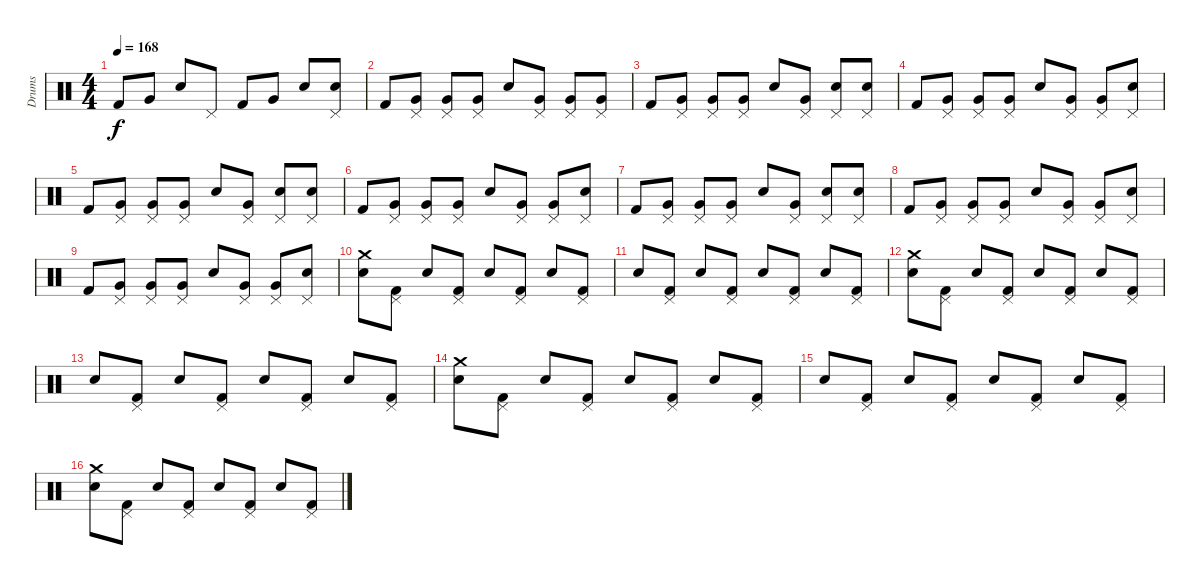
\track ("Drums" "Drums") {instrument percussion}
\staff {score}
\articulation defaults
\ts (4 4)
\tempo 168
\clef neutral
\ks c "Kick (hit) 2".8{dy f} "Very Low Tom (hit)".8 "Electric Snare (hit)".8 "Pedal Hi-Hat (hit)".8 "Kick (hit) 2".8 "Very Low Tom (hit)".8 "Electric Snare (hit)".8
("Pedal Hi-Hat (hit)" "Electric Snare (hit)").8 |
"Kick (hit) 2".8 ("Pedal Hi-Hat (hit)" "Very Low Tom (hit)").8 ("Pedal Hi-Hat (hit)" "Very Low Tom (hit)").8 ("Pedal Hi-Hat (hit)" "Very Low Tom (hit)").8 "Electric Snare (hit)".8 ("Pedal Hi-Hat (hit)" "Very Low Tom (hit)").8 ("Pedal Hi-Hat (hit)" "Very Low Tom (hit)").8 ("Pedal Hi-Hat (hit)" "Very Low Tom (hit)").8 |
"Kick (hit) 2".8 ("Pedal Hi-Hat (hit)" "Very Low Tom (hit)").8 ("Pedal Hi-Hat (hit)" "Very Low Tom (hit)").8 ("Pedal Hi-Hat (hit)" "Very Low Tom (hit)").8 "Electric Snare (hit)".8 ("Pedal Hi-Hat (hit)" "Very Low Tom (hit)").8 ("Pedal Hi-Hat (hit)" "Electric Snare (hit)").8 ("Pedal Hi-Hat (hit)" "Electric Snare (hit)").8 |
"Kick (hit) 2".8 ("Pedal Hi-Hat (hit)" "Very Low Tom (hit)").8 ("Pedal Hi-Hat (hit)" "Very Low Tom (hit)").8 ("Pedal Hi-Hat (hit)" "Very Low Tom (hit)").8 "Electric Snare (hit)".8 ("Pedal Hi-Hat (hit)" "Very Low Tom (hit)").8 ("Pedal Hi-Hat (hit)" "Very Low Tom (hit)").8 ("Pedal Hi-Hat (hit)" "Electric Snare (hit)").8 |
"Kick (hit) 2".8 ("Pedal Hi-Hat (hit)" "Very Low Tom (hit)").8 ("Pedal Hi-Hat (hit)" "Very Low Tom (hit)").8 ("Pedal Hi-Hat (hit)" "Very Low Tom (hit)").8 "Electric Snare (hit)".8 ("Pedal Hi-Hat (hit)" "Very Low Tom (hit)").8 ("Pedal Hi-Hat (hit)" "Electric Snare (hit)").8 ("Pedal Hi-Hat (hit)" "Electric Snare (hit)").8 |
"Kick (hit) 2".8 ("Pedal Hi-Hat (hit)" "Very Low Tom (hit)").8 ("Pedal Hi-Hat (hit)" "Very Low Tom (hit)").8 ("Pedal Hi-Hat (hit)" "Very Low Tom (hit)").8 "Electric Snare (hit)".8 ("Pedal Hi-Hat (hit)" "Very Low Tom (hit)").8 ("Pedal Hi-Hat (hit)" "Very Low Tom (hit)").8 ("Pedal Hi-Hat (hit)" "Electric Snare (hit)").8 |
"Kick (hit) 2".8 ("Pedal Hi-Hat (hit)" "Very Low Tom (hit)").8 ("Pedal Hi-Hat (hit)" "Very Low Tom (hit)").8 ("Pedal Hi-Hat (hit)" "Very Low Tom (hit)").8 "Electric Snare (hit)".8 ("Pedal Hi-Hat (hit)" "Very Low Tom (hit)").8 ("Pedal Hi-Hat (hit)" "Electric Snare (hit)").8 ("Pedal Hi-Hat (hit)" "Electric Snare (hit)").8 |
"Kick (hit) 2".8 ("Pedal Hi-Hat (hit)" "Very Low Tom (hit)").8 ("Pedal Hi-Hat (hit)" "Very Low Tom (hit)").8 ("Pedal Hi-Hat (hit)" "Very Low Tom (hit)").8 "Electric Snare (hit)".8 ("Pedal Hi-Hat (hit)" "Very Low Tom (hit)").8 ("Pedal Hi-Hat (hit)" "Very Low Tom (hit)").8 ("Pedal Hi-Hat (hit)" "Electric Snare (hit)").8 |
"Kick (hit) 2".8 ("Pedal Hi-Hat (hit)" "Very Low Tom (hit)").8 ("Pedal Hi-Hat (hit)" "Very Low Tom (hit)").8 ("Pedal Hi-Hat (hit)" "Very Low Tom (hit)").8 "Electric Snare (hit)".8 ("Pedal Hi-Hat (hit)" "Very Low Tom (hit)").8 ("Pedal Hi-Hat (hit)" "Very Low Tom (hit)").8 ("Pedal Hi-Hat (hit)" "Electric Snare (hit)").8 |
("Crash medium (hit)" "Electric Snare (hit)").8 ("Pedal Hi-Hat (hit)" "Kick (hit) 2").8 "Electric Snare (hit)".8 ("Pedal Hi-Hat (hit)" "Kick (hit) 2").8 "Electric Snare (hit)".8 ("Pedal Hi-Hat (hit)" "Kick (hit) 2").8 "Electric Snare (hit)".8 ("Pedal Hi-Hat (hit)" "Kick (hit) 2").8 |
"Electric Snare (hit)".8 ("Pedal Hi-Hat (hit)" "Kick (hit) 2").8 "Electric Snare (hit)".8 ("Pedal Hi-Hat (hit)" "Kick (hit) 2").8 "Electric Snare (hit)".8 ("Pedal Hi-Hat (hit)" "Kick (hit) 2").8 "Electric Snare (hit)".8 ("Pedal Hi-Hat (hit)" "Kick (hit) 2").8 |
("Crash medium (hit)" "Electric Snare (hit)").8 ("Pedal Hi-Hat (hit)" "Kick (hit) 2").8 "Electric Snare (hit)".8 ("Pedal Hi-Hat (hit)" "Kick (hit) 2").8 "Electric Snare (hit)".8 ("Pedal Hi-Hat (hit)" "Kick (hit) 2").8 "Electric Snare (hit)".8 ("Pedal Hi-Hat (hit)" "Kick (hit) 2").8 |
"Electric Snare (hit)".8 ("Pedal Hi-Hat (hit)" "Kick (hit) 2").8 "Electric Snare (hit)".8 ("Pedal Hi-Hat (hit)" "Kick (hit) 2").8 "Electric Snare (hit)".8 ("Pedal Hi-Hat (hit)" "Kick (hit) 2").8 "Electric Snare (hit)".8 ("Pedal Hi-Hat (hit)" "Kick (hit) 2").8 |
("Crash medium (hit)" "Electric Snare (hit)").8 ("Pedal Hi-Hat (hit)" "Kick (hit) 2").8 "Electric Snare (hit)".8 ("Pedal Hi-Hat (hit)" "Kick (hit) 2").8 "Electric Snare (hit)".8 ("Pedal Hi-Hat (hit)" "Kick (hit) 2").8 "Electric Snare (hit)".8 ("Pedal Hi-Hat (hit)" "Kick (hit) 2").8 |
"Electric Snare (hit)".8 ("Pedal Hi-Hat (hit)" "Kick (hit) 2").8 "Electric Snare (hit)".8 ("Pedal Hi-Hat (hit)" "Kick (hit) 2").8 "Electric Snare (hit)".8 ("Pedal Hi-Hat (hit)" "Kick (hit) 2").8 "Electric Snare (hit)".8 ("Pedal Hi-Hat (hit)" "Kick (hit) 2").8 |
("Crash medium (hit)" "Electric Snare (hit)").8 ("Pedal Hi-Hat (hit)" "Kick (hit) 2").8 "Electric Snare (hit)".8 ("Pedal Hi-Hat (hit)" "Kick (hit) 2").8 "Electric Snare (hit)".8 ("Pedal Hi-Hat (hit)" "Kick (hit) 2").8 "Electric Snare (hit)".8 ("Pedal Hi-Hat (hit)" "Kick (hit) 2").8
